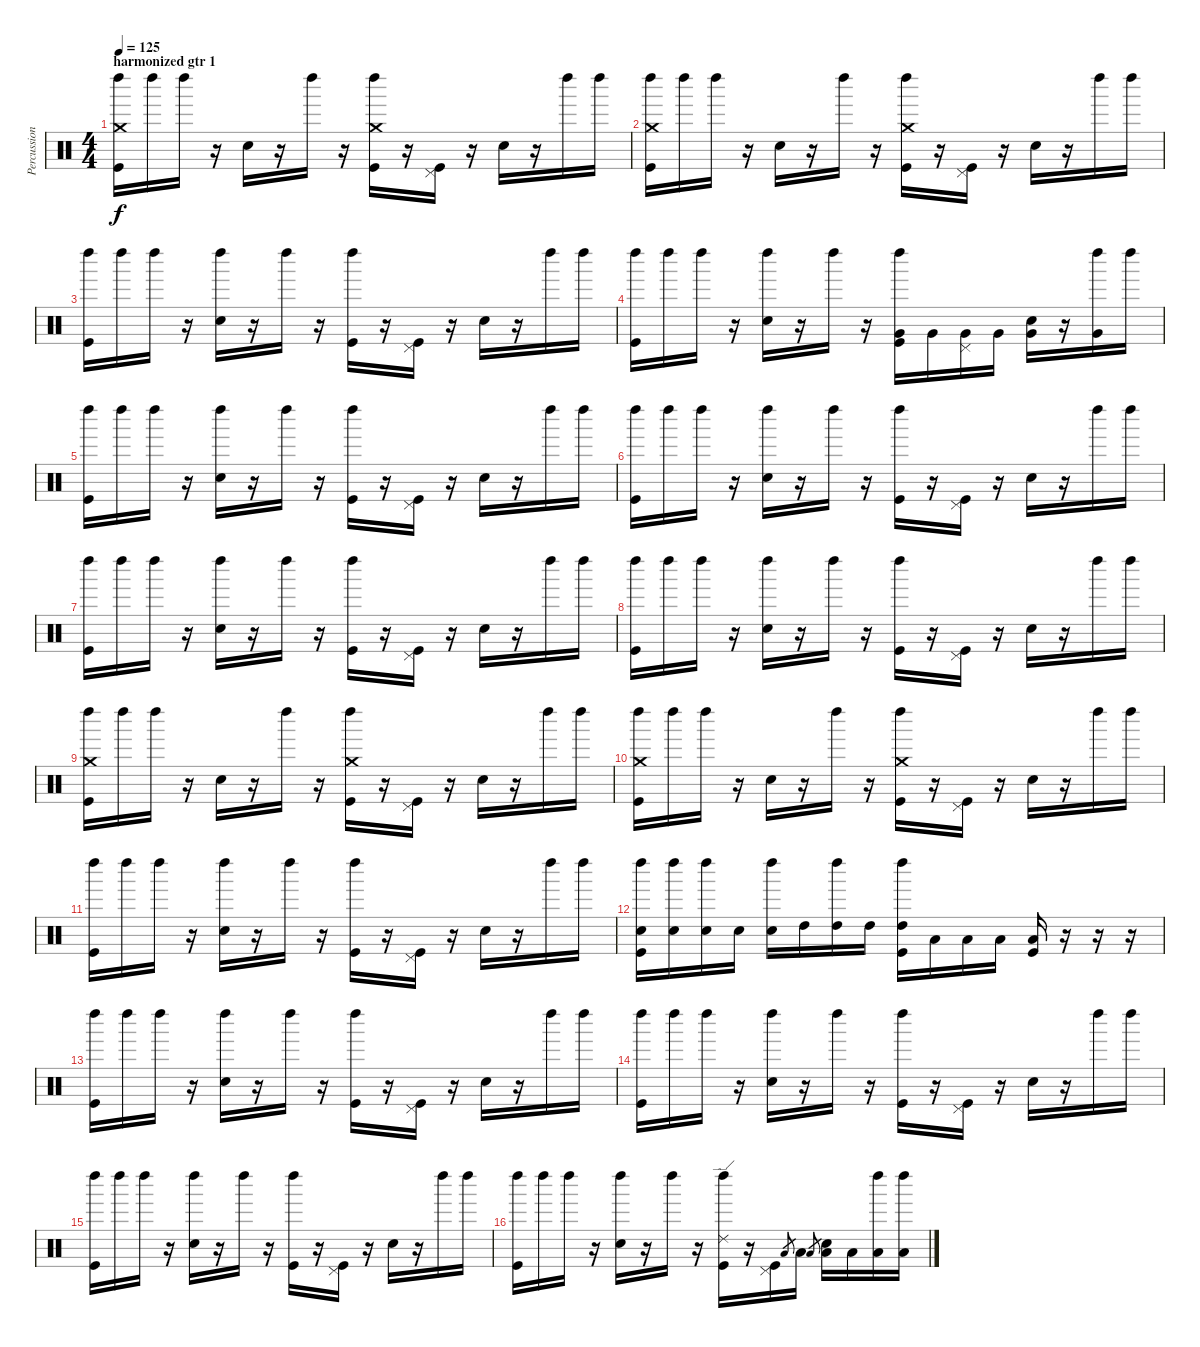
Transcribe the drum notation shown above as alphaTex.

\track ("Percussions" "Percussion") {instrument percussion}
\staff {score}
\articulation defaults
\ts (4 4)
\section ("" "harmonized gtr 1")
\tempo 125
\clef neutral
\ks c
("Crash medium (hit)" "Left Maraca (hit)" "Kick (hit)").16{dy f} "Left Maraca (hit)".16 "Left Maraca (hit)".16 r.16 "Snare (hit) 2".16 r.16 "Left Maraca (hit)".16 r.16 ("Crash medium (hit)" "Left Maraca (hit)" "Kick (hit)").16 r.16 ("Pedal Hi-Hat (hit)" "Kick (hit)").16 r.16 "Snare (hit) 2".16 r.16 "Left Maraca (hit)".16 "Left Maraca (hit)".16 |
("Crash medium (hit)" "Left Maraca (hit)" "Kick (hit)").16 "Left Maraca (hit)".16 "Left Maraca (hit)".16 r.16 "Snare (hit) 2".16 r.16 "Left Maraca (hit)".16 r.16 ("Crash medium (hit)" "Left Maraca (hit)" "Kick (hit)").16 r.16 ("Pedal Hi-Hat (hit)" "Kick (hit)").16 r.16 "Snare (hit) 2".16 r.16 "Left Maraca (hit)".16 "Left Maraca (hit)".16 |
("Left Maraca (hit)" "Kick (hit)").16 "Left Maraca (hit)".16 "Left Maraca (hit)".16 r.16 ("Left Maraca (hit)" "Snare (hit) 2").16 r.16 "Left Maraca (hit)".16 r.16 ("Left Maraca (hit)" "Kick (hit)").16 r.16 ("Pedal Hi-Hat (hit)" "Kick (hit)").16 r.16 "Snare (hit) 2".16 r.16 "Left Maraca (hit)".16 "Left Maraca (hit)".16 |
("Left Maraca (hit)" "Kick (hit)").16 "Left Maraca (hit)".16 "Left Maraca (hit)".16 r.16 ("Left Maraca (hit)" "Snare (hit) 2").16 r.16 "Left Maraca (hit)".16 r.16 ("Left Maraca (hit)" "Very Low Tom (hit)" "Kick (hit)").16 "Very Low Tom (hit)".16 ("Pedal Hi-Hat (hit)" "Very Low Tom (hit)").16 "Very Low Tom (hit)".16 ("Snare (hit) 2" "Very Low Tom (hit)").16 r.16 ("Left Maraca (hit)" "Very Low Tom (hit)").16 "Left Maraca (hit)".16 |
("Left Maraca (hit)" "Kick (hit)").16 "Left Maraca (hit)".16 "Left Maraca (hit)".16 r.16 ("Left Maraca (hit)" "Snare (hit) 2").16 r.16 "Left Maraca (hit)".16 r.16 ("Left Maraca (hit)" "Kick (hit)").16 r.16 ("Pedal Hi-Hat (hit)" "Kick (hit)").16 r.16 "Snare (hit) 2".16 r.16 "Left Maraca (hit)".16 "Left Maraca (hit)".16 |
("Left Maraca (hit)" "Kick (hit)").16 "Left Maraca (hit)".16 "Left Maraca (hit)".16 r.16 ("Left Maraca (hit)" "Snare (hit) 2").16 r.16 "Left Maraca (hit)".16 r.16 ("Left Maraca (hit)" "Kick (hit)").16 r.16 ("Pedal Hi-Hat (hit)" "Kick (hit)").16 r.16 "Snare (hit) 2".16 r.16 "Left Maraca (hit)".16 "Left Maraca (hit)".16 |
("Left Maraca (hit)" "Kick (hit)").16 "Left Maraca (hit)".16 "Left Maraca (hit)".16 r.16 ("Left Maraca (hit)" "Snare (hit) 2").16 r.16 "Left Maraca (hit)".16 r.16 ("Left Maraca (hit)" "Kick (hit)").16 r.16 ("Pedal Hi-Hat (hit)" "Kick (hit)").16 r.16 "Snare (hit) 2".16 r.16 "Left Maraca (hit)".16 "Left Maraca (hit)".16 |
("Left Maraca (hit)" "Kick (hit)").16 "Left Maraca (hit)".16 "Left Maraca (hit)".16 r.16 ("Left Maraca (hit)" "Snare (hit) 2").16 r.16 "Left Maraca (hit)".16 r.16 ("Left Maraca (hit)" "Kick (hit)").16 r.16 ("Pedal Hi-Hat (hit)" "Kick (hit)").16 r.16 "Snare (hit) 2".16 r.16 "Left Maraca (hit)".16 "Left Maraca (hit)".16 |
("Crash medium (hit)" "Left Maraca (hit)" "Kick (hit)").16 "Left Maraca (hit)".16 "Left Maraca (hit)".16 r.16 "Snare (hit) 2".16 r.16 "Left Maraca (hit)".16 r.16 ("Crash medium (hit)" "Left Maraca (hit)" "Kick (hit)").16 r.16 ("Pedal Hi-Hat (hit)" "Kick (hit)").16 r.16 "Snare (hit) 2".16 r.16 "Left Maraca (hit)".16 "Left Maraca (hit)".16 |
("Crash medium (hit)" "Left Maraca (hit)" "Kick (hit)").16 "Left Maraca (hit)".16 "Left Maraca (hit)".16 r.16 "Snare (hit) 2".16 r.16 "Left Maraca (hit)".16 r.16 ("Crash medium (hit)" "Left Maraca (hit)" "Kick (hit)").16 r.16 ("Pedal Hi-Hat (hit)" "Kick (hit)").16 r.16 "Snare (hit) 2".16 r.16 "Left Maraca (hit)".16 "Left Maraca (hit)".16 |
("Left Maraca (hit)" "Kick (hit)").16 "Left Maraca (hit)".16 "Left Maraca (hit)".16 r.16 ("Left Maraca (hit)" "Snare (hit) 2").16 r.16 "Left Maraca (hit)".16 r.16 ("Left Maraca (hit)" "Kick (hit)").16 r.16 ("Pedal Hi-Hat (hit)" "Kick (hit)").16 r.16 "Snare (hit) 2".16 r.16 "Left Maraca (hit)".16 "Left Maraca (hit)".16 |
("Left Maraca (hit)" "Snare (hit) 2" "Kick (hit)").16 ("Left Maraca (hit)" "Snare (hit) 2").16{volume 8} ("Left Maraca (hit)" "Snare (hit) 2").16{volume 13} "Snare (hit) 2".16 ("Left Maraca (hit)" "Snare (hit) 2").16 "High Tom (hit)".16 ("Left Maraca (hit)" "High Tom (hit)").16 "High Tom (hit)".16 ("Left Maraca (hit)" "High Tom (hit)" "Kick (hit)").16 "Low Tom (hit)".16 "Low Tom (hit)".16 "Low Tom (hit)".16 ("Low Tom (hit)" "Kick (hit)").16 r.16 r.16 r.16 |
("Left Maraca (hit)" "Kick (hit)").16 "Left Maraca (hit)".16 "Left Maraca (hit)".16 r.16 ("Left Maraca (hit)" "Snare (hit) 2").16 r.16 "Left Maraca (hit)".16 r.16 ("Left Maraca (hit)" "Kick (hit)").16 r.16 ("Pedal Hi-Hat (hit)" "Kick (hit)").16 r.16 "Snare (hit) 2".16 r.16 "Left Maraca (hit)".16 "Left Maraca (hit)".16 |
("Left Maraca (hit)" "Kick (hit)").16 "Left Maraca (hit)".16 "Left Maraca (hit)".16 r.16 ("Left Maraca (hit)" "Snare (hit) 2").16 r.16 "Left Maraca (hit)".16 r.16 ("Left Maraca (hit)" "Kick (hit)").16 r.16 ("Pedal Hi-Hat (hit)" "Kick (hit)").16 r.16 "Snare (hit) 2".16 r.16 "Left Maraca (hit)".16 "Left Maraca (hit)".16 |
("Left Maraca (hit)" "Kick (hit)").16 "Left Maraca (hit)".16 "Left Maraca (hit)".16 r.16 ("Left Maraca (hit)" "Snare (hit) 2").16 r.16 "Left Maraca (hit)".16 r.16 ("Left Maraca (hit)" "Kick (hit)").16 r.16 ("Pedal Hi-Hat (hit)" "Kick (hit)").16 r.16 "Snare (hit) 2".16 r.16 "Left Maraca (hit)".16 "Left Maraca (hit)".16 |
("Left Maraca (hit)" "Kick (hit)").16 "Left Maraca (hit)".16 "Left Maraca (hit)".16 r.16 ("Left Maraca (hit)" "Snare (hit) 2").16 r.16 "Left Maraca (hit)".16 r.16 ("Ride (edge) 2" "Left Maraca (hit)" "Kick (hit)").16 r.16 ("Pedal Hi-Hat (hit)" "Kick (hit)").16 "Low Floor Tom (hit)".8{gr} "Low Floor Tom (hit)".16 "Low Floor Tom (hit)".8{gr} ("Low Floor Tom (hit)" "Snare (hit) 2").16 "Low Floor Tom (hit)".16 ("Low Floor Tom (hit)" "Left Maraca (hit)").16 ("Low Floor Tom (hit)" "Left Maraca (hit)").16
